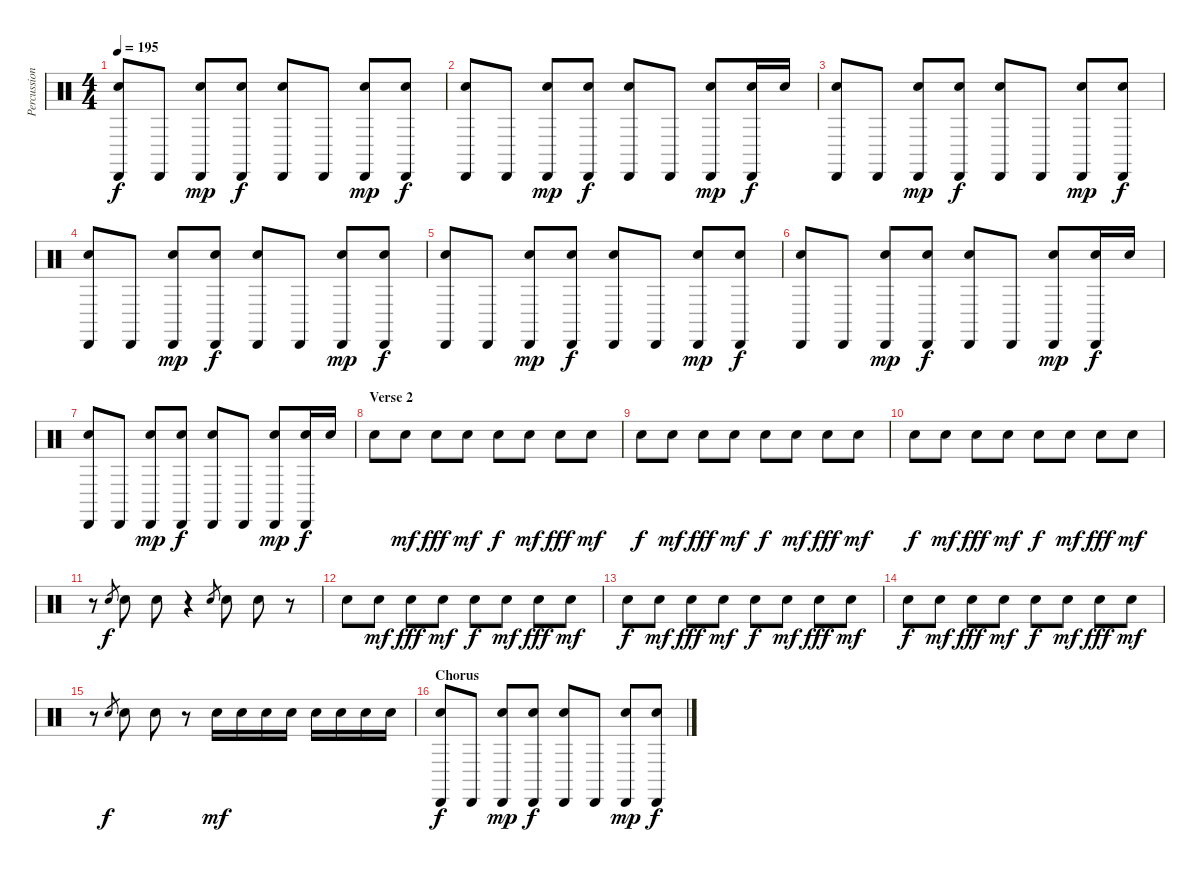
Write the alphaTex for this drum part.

\track ("Percussion" "Percussion") {instrument percussion}
\staff {score}
\articulation defaults
\ts (4 4)
\tempo 195
\clef neutral
\ks c
("Cabasa (hit)" "Snare (hit) 2").8{dy f} "Cabasa (hit)".8 ("Cabasa (hit)" "Snare (hit) 2").8{dy mp} ("Cabasa (hit)" "Snare (hit) 2").8{dy f} ("Cabasa (hit)" "Snare (hit) 2").8 "Cabasa (hit)".8 ("Cabasa (hit)" "Snare (hit) 2").8{dy mp} ("Cabasa (hit)" "Snare (hit) 2").8{dy f} |
("Cabasa (hit)" "Snare (hit) 2").8 "Cabasa (hit)".8 ("Cabasa (hit)" "Snare (hit) 2").8{dy mp} ("Cabasa (hit)" "Snare (hit) 2").8{dy f} ("Cabasa (hit)" "Snare (hit) 2").8 "Cabasa (hit)".8 ("Cabasa (hit)" "Snare (hit) 2").8{dy mp} ("Cabasa (hit)" "Snare (hit) 2").16{dy f} "Snare (hit) 2".16 |
("Cabasa (hit)" "Snare (hit) 2").8 "Cabasa (hit)".8 ("Cabasa (hit)" "Snare (hit) 2").8{dy mp} ("Cabasa (hit)" "Snare (hit) 2").8{dy f} ("Cabasa (hit)" "Snare (hit) 2").8 "Cabasa (hit)".8 ("Cabasa (hit)" "Snare (hit) 2").8{dy mp} ("Cabasa (hit)" "Snare (hit) 2").8{dy f} |
("Cabasa (hit)" "Snare (hit) 2").8 "Cabasa (hit)".8 ("Cabasa (hit)" "Snare (hit) 2").8{dy mp} ("Cabasa (hit)" "Snare (hit) 2").8{dy f} ("Cabasa (hit)" "Snare (hit) 2").8 "Cabasa (hit)".8 ("Cabasa (hit)" "Snare (hit) 2").8{dy mp} ("Cabasa (hit)" "Snare (hit) 2").8{dy f} |
("Cabasa (hit)" "Snare (hit) 2").8 "Cabasa (hit)".8 ("Cabasa (hit)" "Snare (hit) 2").8{dy mp} ("Cabasa (hit)" "Snare (hit) 2").8{dy f} ("Cabasa (hit)" "Snare (hit) 2").8 "Cabasa (hit)".8 ("Cabasa (hit)" "Snare (hit) 2").8{dy mp} ("Cabasa (hit)" "Snare (hit) 2").8{dy f} |
("Cabasa (hit)" "Snare (hit) 2").8 "Cabasa (hit)".8 ("Cabasa (hit)" "Snare (hit) 2").8{dy mp} ("Cabasa (hit)" "Snare (hit) 2").8{dy f} ("Cabasa (hit)" "Snare (hit) 2").8 "Cabasa (hit)".8 ("Cabasa (hit)" "Snare (hit) 2").8{dy mp} ("Cabasa (hit)" "Snare (hit) 2").16{dy f} "Snare (hit) 2".16 |
("Cabasa (hit)" "Snare (hit) 2").8 "Cabasa (hit)".8 ("Cabasa (hit)" "Snare (hit) 2").8{dy mp} ("Cabasa (hit)" "Snare (hit) 2").8{dy f} ("Cabasa (hit)" "Snare (hit) 2").8 "Cabasa (hit)".8 ("Cabasa (hit)" "Snare (hit) 2").8{dy mp} ("Cabasa (hit)" "Snare (hit) 2").16{dy f} "Snare (hit) 2".16 |
\section ("" "Verse 2")
"Snare (hit) 2".8 "Snare (hit) 2".8{dy mf} "Snare (hit) 2".8{dy fff} "Snare (hit) 2".8{dy mf} "Snare (hit) 2".8{dy f} "Snare (hit) 2".8{dy mf} "Snare (hit) 2".8{dy fff} "Snare (hit) 2".8{dy mf} |
"Snare (hit) 2".8{dy f} "Snare (hit) 2".8{dy mf} "Snare (hit) 2".8{dy fff} "Snare (hit) 2".8{dy mf} "Snare (hit) 2".8{dy f} "Snare (hit) 2".8{dy mf} "Snare (hit) 2".8{dy fff} "Snare (hit) 2".8{dy mf} |
"Snare (hit) 2".8{dy f} "Snare (hit) 2".8{dy mf} "Snare (hit) 2".8{dy fff} "Snare (hit) 2".8{dy mf} "Snare (hit) 2".8{dy f} "Snare (hit) 2".8{dy mf} "Snare (hit) 2".8{dy fff} "Snare (hit) 2".8{dy mf} |
r.8 "Snare (hit) 2".8{gr dy f} "Snare (hit) 2".8 "Snare (hit) 2".8 r.4 "Snare (hit) 2".8{gr} "Snare (hit) 2".8 "Snare (hit) 2".8 r.8 |
"Snare (hit) 2".8 "Snare (hit) 2".8{dy mf} "Snare (hit) 2".8{dy fff} "Snare (hit) 2".8{dy mf} "Snare (hit) 2".8{dy f} "Snare (hit) 2".8{dy mf} "Snare (hit) 2".8{dy fff} "Snare (hit) 2".8{dy mf} |
"Snare (hit) 2".8{dy f} "Snare (hit) 2".8{dy mf} "Snare (hit) 2".8{dy fff} "Snare (hit) 2".8{dy mf} "Snare (hit) 2".8{dy f} "Snare (hit) 2".8{dy mf} "Snare (hit) 2".8{dy fff} "Snare (hit) 2".8{dy mf} |
"Snare (hit) 2".8{dy f} "Snare (hit) 2".8{dy mf} "Snare (hit) 2".8{dy fff} "Snare (hit) 2".8{dy mf} "Snare (hit) 2".8{dy f} "Snare (hit) 2".8{dy mf} "Snare (hit) 2".8{dy fff} "Snare (hit) 2".8{dy mf} |
r.8 "Snare (hit) 2".8{gr dy f} "Snare (hit) 2".8 "Snare (hit) 2".8 r.8 "Snare (hit) 2".16{dy mf} "Snare (hit) 2".16 "Snare (hit) 2".16 "Snare (hit) 2".16 "Snare (hit) 2".16 "Snare (hit) 2".16 "Snare (hit) 2".16 "Snare (hit) 2".16 |
\section ("" "Chorus")
("Cabasa (hit)" "Snare (hit) 2").8{dy f} "Cabasa (hit)".8 ("Cabasa (hit)" "Snare (hit) 2").8{dy mp} ("Cabasa (hit)" "Snare (hit) 2").8{dy f} ("Cabasa (hit)" "Snare (hit) 2").8 "Cabasa (hit)".8 ("Cabasa (hit)" "Snare (hit) 2").8{dy mp} ("Cabasa (hit)" "Snare (hit) 2").8{dy f}
